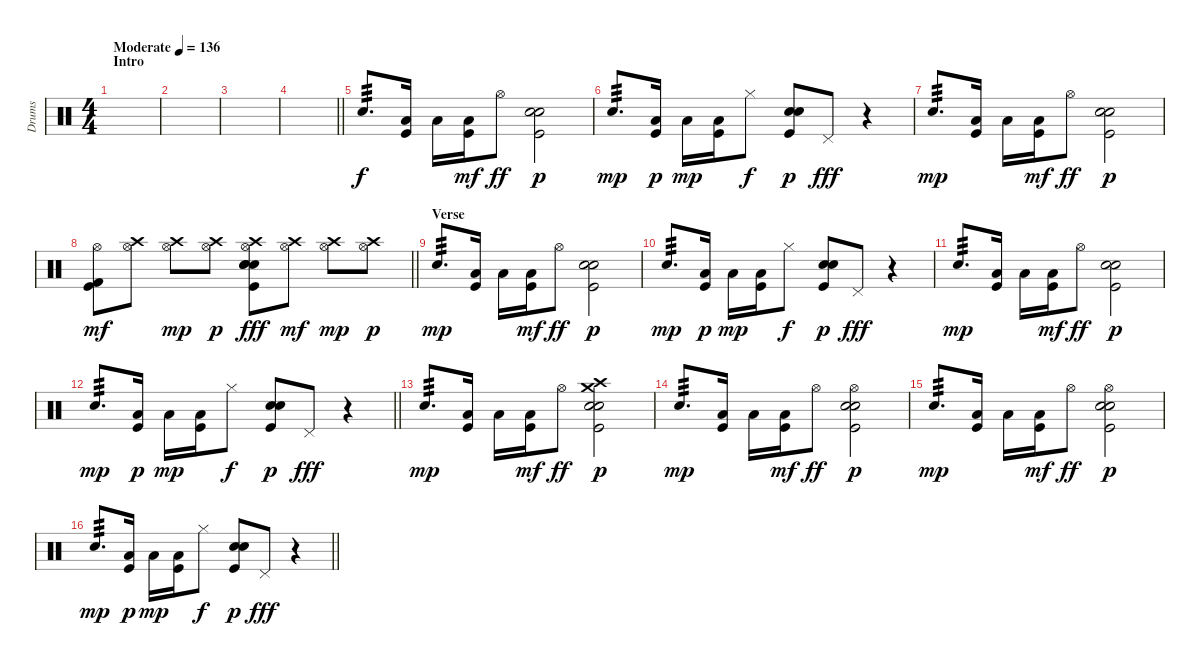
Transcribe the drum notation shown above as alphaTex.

\track ("Drums" "Drums") {instrument percussion}
\staff {score}
\articulation defaults
\ts (4 4)
\section ("" "Intro")
\tempo (136 "Moderate")
\clef neutral
\ks c
|
|
|
\barLineRight lightlight
|
"Electric Snare (hit)".8{d tp 3 volume 9} ("Low Tom (hit)" "Kick (hit)").16 "Low Tom (hit)".16 ("Low Tom (hit)" "Kick (hit)").16{dy mf} "Hi-Hat (open)".8{dy ff} ("Hand Clap (hit)" "Electric Snare (hit)" "Kick (hit)").2{dy p} |
"Electric Snare (hit)".8{d tp 3 dy mp} ("Low Tom (hit)" "Kick (hit)").16{dy p} "Low Tom (hit)".16{dy mp} ("Low Tom (hit)" "Kick (hit)").16 "Hi-Hat (closed)".8{dy f} ("Hand Clap (hit)" "Electric Snare (hit)" "Kick (hit)").8{dy p} "Pedal Hi-Hat (hit)".8{dy fff} r.4 |
"Electric Snare (hit)".8{d tp 3 dy mp} ("Low Tom (hit)" "Kick (hit)").16 "Low Tom (hit)".16 ("Low Tom (hit)" "Kick (hit)").16{dy mf} "Hi-Hat (open)".8{dy ff} ("Hand Clap (hit)" "Electric Snare (hit)" "Kick (hit)").2{dy p} |
\barLineRight lightlight
("Hi-Hat (open)" "Kick (hit) 2" "Kick (hit)").8{dy mf} ("Crash high (hit)" "Hi-Hat (open)").8 ("Crash high (hit)" "Hi-Hat (open)").8{dy mp} ("Crash high (hit)" "Hi-Hat (open)").8{dy p} ("Crash high (hit)" "Hand Clap (hit)" "Hi-Hat (open)" "Snare (hit) 2" "Electric Snare (hit)" "Kick (hit)").8{dy fff} ("Crash high (hit)" "Hi-Hat (open)").8{dy mf} ("Crash high (hit)" "Hi-Hat (open)").8{dy mp} ("Crash high (hit)" "Hi-Hat (open)").8{dy p} |
\section ("" "Verse")
"Electric Snare (hit)".8{d tp 3 dy mp} ("Low Tom (hit)" "Kick (hit)").16 "Low Tom (hit)".16 ("Low Tom (hit)" "Kick (hit)").16{dy mf} "Hi-Hat (open)".8{dy ff} ("Hand Clap (hit)" "Electric Snare (hit)" "Kick (hit)").2{dy p} |
"Electric Snare (hit)".8{d tp 3 dy mp} ("Low Tom (hit)" "Kick (hit)").16{dy p} "Low Tom (hit)".16{dy mp} ("Low Tom (hit)" "Kick (hit)").16 "Hi-Hat (closed)".8{dy f} ("Hand Clap (hit)" "Electric Snare (hit)" "Kick (hit)").8{dy p} "Pedal Hi-Hat (hit)".8{dy fff} r.4 |
"Electric Snare (hit)".8{d tp 3 dy mp} ("Low Tom (hit)" "Kick (hit)").16 "Low Tom (hit)".16 ("Low Tom (hit)" "Kick (hit)").16{dy mf} "Hi-Hat (open)".8{dy ff} ("Hand Clap (hit)" "Electric Snare (hit)" "Kick (hit)").2{dy p} |
\barLineRight lightlight "Electric Snare (hit)".8{d tp 3 dy mp}
("Low Tom (hit)" "Kick (hit)").16{dy p} "Low Tom (hit)".16{dy mp} ("Low Tom (hit)" "Kick (hit)").16 "Hi-Hat (closed)".8{dy f} ("Hand Clap (hit)" "Electric Snare (hit)" "Kick (hit)").8{dy p} "Pedal Hi-Hat (hit)".8{dy fff} r.4 |
"Electric Snare (hit)".8{d tp 3 dy mp} ("Low Tom (hit)" "Kick (hit)").16 "Low Tom (hit)".16 ("Low Tom (hit)" "Kick (hit)").16{dy mf} "Hi-Hat (open)".8{dy ff} ("Crash high (hit)" "Crash medium (hit)" "Hand Clap (hit)" "Electric Snare (hit)" "Kick (hit)").2{dy p} |
"Electric Snare (hit)".8{d tp 3 dy mp} ("Low Tom (hit)" "Kick (hit)").16 "Low Tom (hit)".16 ("Low Tom (hit)" "Kick (hit)").16{dy mf} "Hi-Hat (open)".8{dy ff} ("Hi-Hat (open)" "Hand Clap (hit)" "Electric Snare (hit)" "Kick (hit)").2{dy p} |
"Electric Snare (hit)".8{d tp 3 dy mp} ("Low Tom (hit)" "Kick (hit)").16 "Low Tom (hit)".16 ("Low Tom (hit)" "Kick (hit)").16{dy mf} "Hi-Hat (open)".8{dy ff} ("Hi-Hat (open)" "Hand Clap (hit)" "Electric Snare (hit)" "Kick (hit)").2{dy p} |
\barLineRight lightlight "Electric Snare (hit)".8{d tp 3 dy mp}
("Low Tom (hit)" "Kick (hit)").16{dy p} "Low Tom (hit)".16{dy mp} ("Low Tom (hit)" "Kick (hit)").16 "Hi-Hat (closed)".8{dy f} ("Hand Clap (hit)" "Electric Snare (hit)" "Kick (hit)").8{dy p} "Pedal Hi-Hat (hit)".8{dy fff} r.4
